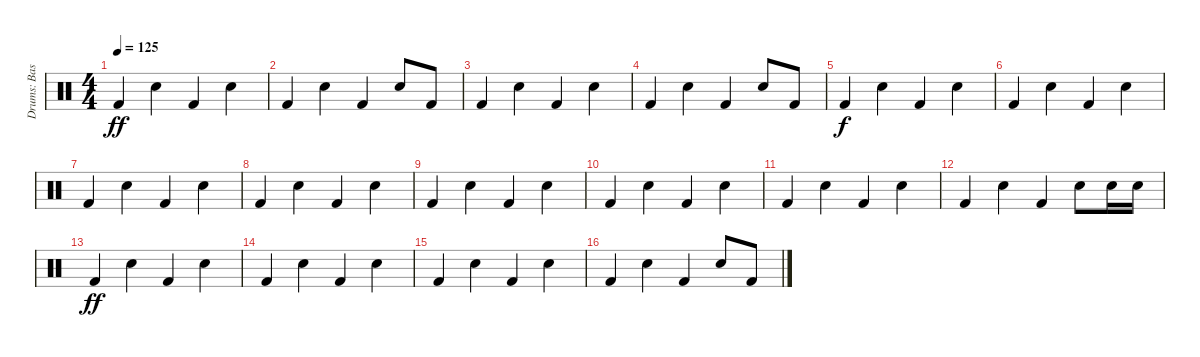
\track ("Drums: Bass, Snare" "Drums: Bas") {instrument percussion}
\staff {score}
\articulation defaults
\ts (4 4)
\tempo 125
\clef neutral
\ks c "Kick (hit) 2".4{dy ff} "Electric Snare (hit)".4 "Kick (hit) 2".4 "Electric Snare (hit)".4
|
"Kick (hit) 2".4 "Electric Snare (hit)".4 "Kick (hit) 2".4 "Electric Snare (hit)".8 "Kick (hit) 2".8 |
"Kick (hit) 2".4 "Electric Snare (hit)".4 "Kick (hit) 2".4 "Electric Snare (hit)".4 |
"Kick (hit) 2".4 "Electric Snare (hit)".4 "Kick (hit) 2".4 "Electric Snare (hit)".8 "Kick (hit) 2".8 |
"Kick (hit) 2".4{dy f} "Electric Snare (hit)".4 "Kick (hit) 2".4 "Electric Snare (hit)".4 |
"Kick (hit) 2".4 "Electric Snare (hit)".4 "Kick (hit) 2".4 "Electric Snare (hit)".4 |
"Kick (hit) 2".4 "Electric Snare (hit)".4 "Kick (hit) 2".4 "Electric Snare (hit)".4 |
"Kick (hit) 2".4 "Electric Snare (hit)".4 "Kick (hit) 2".4 "Electric Snare (hit)".4 |
"Kick (hit) 2".4 "Electric Snare (hit)".4 "Kick (hit) 2".4 "Electric Snare (hit)".4 |
"Kick (hit) 2".4 "Electric Snare (hit)".4 "Kick (hit) 2".4 "Electric Snare (hit)".4 |
"Kick (hit) 2".4 "Electric Snare (hit)".4 "Kick (hit) 2".4 "Electric Snare (hit)".4 |
"Kick (hit) 2".4 "Electric Snare (hit)".4 "Kick (hit) 2".4 "Electric Snare (hit)".8 "Electric Snare (hit)".16 "Electric Snare (hit)".16 |
"Kick (hit) 2".4{dy ff} "Electric Snare (hit)".4 "Kick (hit) 2".4 "Electric Snare (hit)".4 |
"Kick (hit) 2".4 "Electric Snare (hit)".4 "Kick (hit) 2".4 "Electric Snare (hit)".4 |
"Kick (hit) 2".4 "Electric Snare (hit)".4 "Kick (hit) 2".4 "Electric Snare (hit)".4 |
"Kick (hit) 2".4 "Electric Snare (hit)".4 "Kick (hit) 2".4 "Electric Snare (hit)".8 "Kick (hit) 2".8
